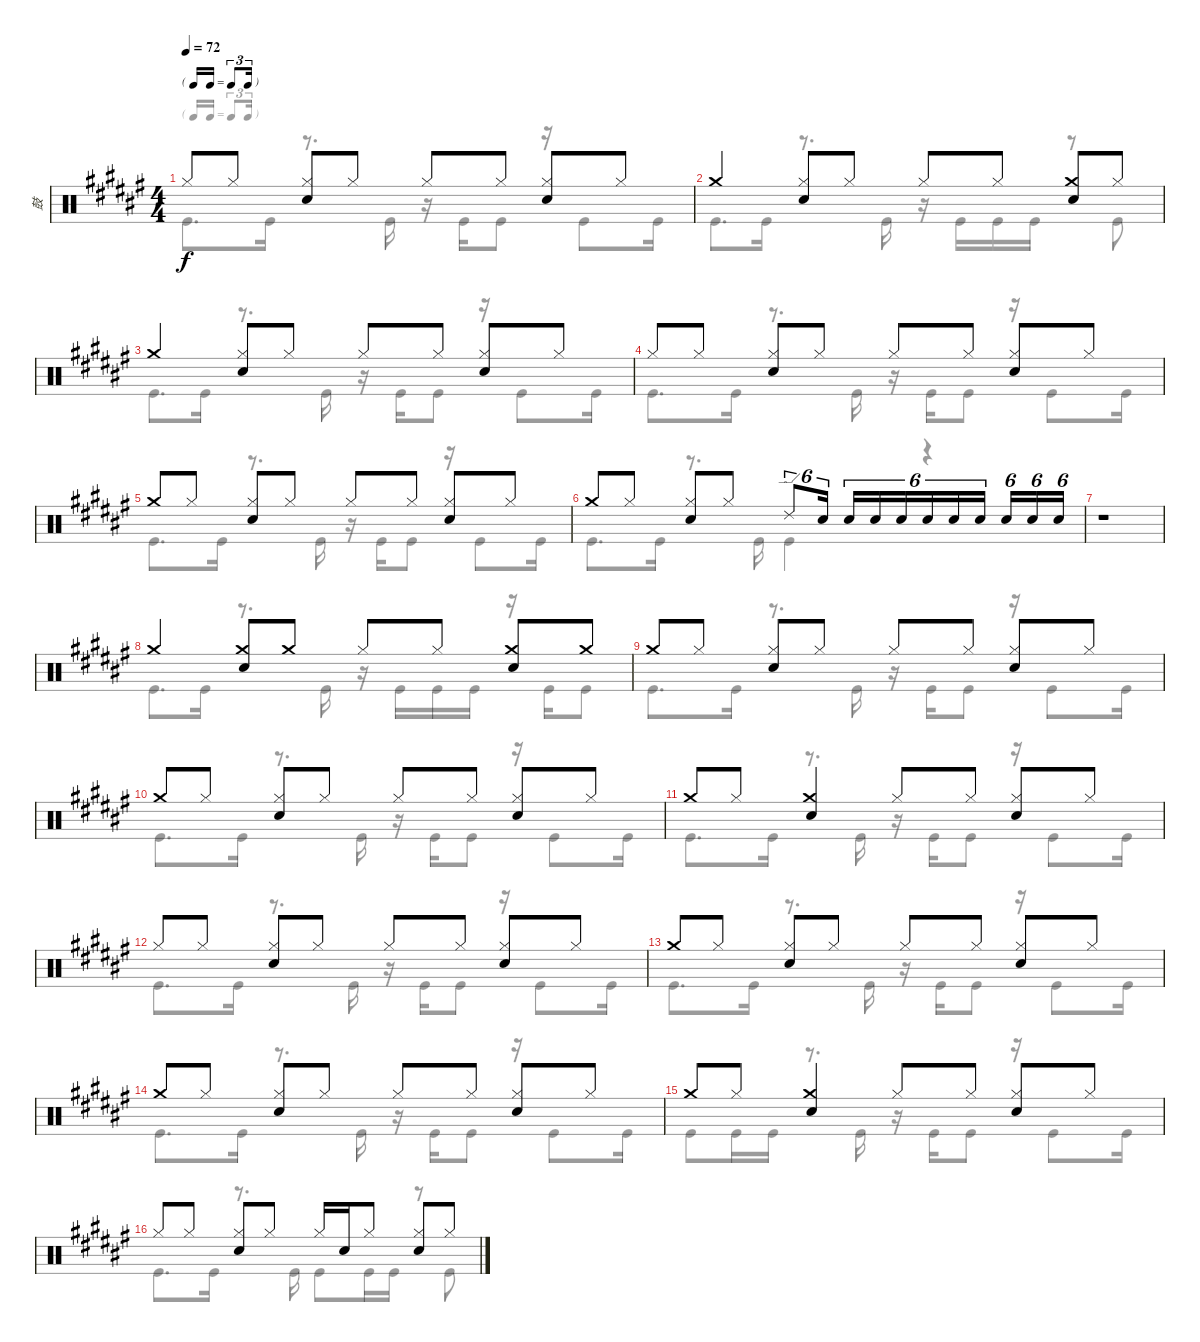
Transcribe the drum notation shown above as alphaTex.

\track ("鼓" "鼓") {instrument percussion}
\staff {score}
\articulation defaults
\voice
\ts (4 4)
\tf triplet16th
\tempo 72
\clef neutral
\ks f# "Hi-Hat (closed)".8{dy f} "Hi-Hat (closed)".8
("Hi-Hat (closed)" "Snare (hit) 2").8 "Hi-Hat (closed)".8 "Hi-Hat (closed)".8 "Hi-Hat (closed)".8 ("Hi-Hat (closed)" "Snare (hit) 2").8 "Hi-Hat (closed)".8 |
"Crash medium (hit)".4 ("Hi-Hat (closed)" "Snare (hit) 2").8 "Hi-Hat (closed)".8 "Hi-Hat (closed)".8 "Hi-Hat (closed)".8 ("Crash medium (hit)" "Snare (hit) 2").8 "Hi-Hat (closed)".8 |
"Crash medium (hit)".4 ("Hi-Hat (closed)" "Snare (hit) 2").8 "Hi-Hat (closed)".8 "Hi-Hat (closed)".8 "Hi-Hat (closed)".8 ("Hi-Hat (closed)" "Snare (hit) 2").8 "Hi-Hat (closed)".8 |
"Hi-Hat (closed)".8 "Hi-Hat (closed)".8 ("Hi-Hat (closed)" "Snare (hit) 2").8 "Hi-Hat (closed)".8 "Hi-Hat (closed)".8 "Hi-Hat (closed)".8 ("Hi-Hat (closed)" "Snare (hit) 2").8 "Hi-Hat (closed)".8 |
"Crash medium (hit)".8 "Hi-Hat (closed)".8 ("Hi-Hat (closed)" "Snare (hit) 2").8 "Hi-Hat (closed)".8 "Hi-Hat (closed)".8 "Hi-Hat (closed)".8 ("Hi-Hat (closed)" "Snare (hit) 2").8 "Hi-Hat (closed)".8 |
"Crash medium (hit)".8 "Hi-Hat (closed)".8 ("Hi-Hat (closed)" "Snare (hit) 2").8 "Hi-Hat (closed)".8 "Ride (edge) 2".8{tu (6 4)} "Snare (hit) 2".16{tu (6 4) beam splitsecondary} "Snare (hit) 2".16{tu (6 4)} "Snare (hit) 2".16{tu (6 4)} "Snare (hit) 2".16{tu (6 4)} "Snare (hit) 2".16{tu (6 4)} "Snare (hit) 2".16{tu (6 4)} "Snare (hit) 2".16{tu (6 4) beam splitsecondary} "Snare (hit) 2".16{tu (6 4)} "Snare (hit) 2".16{tu (6 4)} "Snare (hit) 2".16{tu (6 4)} |
r.1 |
"Crash medium (hit)".4 ("Crash medium (hit)" "Snare (hit) 2").8 "Crash medium (hit)".8 "Hi-Hat (closed)".8 "Hi-Hat (closed)".8 ("Crash medium (hit)" "Snare (hit) 2").8 "Crash medium (hit)".8 |
"Crash medium (hit)".8 "Hi-Hat (closed)".8 ("Hi-Hat (closed)" "Snare (hit) 2").8 "Hi-Hat (closed)".8 "Hi-Hat (closed)".8 "Hi-Hat (closed)".8 ("Hi-Hat (closed)" "Snare (hit) 2").8 "Hi-Hat (closed)".8 |
"Crash medium (hit)".8 "Hi-Hat (closed)".8 ("Hi-Hat (closed)" "Snare (hit) 2").8 "Hi-Hat (closed)".8 "Hi-Hat (closed)".8 "Hi-Hat (closed)".8 ("Hi-Hat (closed)" "Snare (hit) 2").8 "Hi-Hat (closed)".8 |
"Crash medium (hit)".8 "Hi-Hat (closed)".8 ("Crash medium (hit)" "Snare (hit) 2").4 "Hi-Hat (closed)".8 "Hi-Hat (closed)".8 ("Hi-Hat (closed)" "Snare (hit) 2").8 "Hi-Hat (closed)".8 |
"Hi-Hat (closed)".8 "Hi-Hat (closed)".8 ("Hi-Hat (closed)" "Snare (hit) 2").8 "Hi-Hat (closed)".8 "Hi-Hat (closed)".8 "Hi-Hat (closed)".8 ("Hi-Hat (closed)" "Snare (hit) 2").8 "Hi-Hat (closed)".8 |
"Crash medium (hit)".8 "Hi-Hat (closed)".8 ("Hi-Hat (closed)" "Snare (hit) 2").8 "Hi-Hat (closed)".8 "Hi-Hat (closed)".8 "Hi-Hat (closed)".8 ("Hi-Hat (closed)" "Snare (hit) 2").8 "Hi-Hat (closed)".8 |
"Crash medium (hit)".8 "Hi-Hat (closed)".8 ("Hi-Hat (closed)" "Snare (hit) 2").8 "Hi-Hat (closed)".8 "Hi-Hat (closed)".8 "Hi-Hat (closed)".8 ("Hi-Hat (closed)" "Snare (hit) 2").8 "Hi-Hat (closed)".8 |
"Crash medium (hit)".8 "Hi-Hat (closed)".8 ("Crash medium (hit)" "Snare (hit) 2").4 "Hi-Hat (closed)".8 "Hi-Hat (closed)".8 ("Hi-Hat (closed)" "Snare (hit) 2").8 "Hi-Hat (closed)".8 |
"Hi-Hat (closed)".8 "Hi-Hat (closed)".8 ("Hi-Hat (closed)" "Snare (hit) 2").8 "Hi-Hat (closed)".8 "Hi-Hat (closed)".16 "Snare (hit) 2".16 "Hi-Hat (closed)".8 ("Hi-Hat (closed)" "Snare (hit) 2").8 "Hi-Hat (closed)".8
\voice
\clef neutral
\ottava regular
\simile none
\ks f# "Kick (hit)".8{d dy f} "Kick (hit)".16
r.8{d} "Kick (hit)".16 r.16 "Kick (hit)".16 "Kick (hit)".8 r.16 "Kick (hit)".8 "Kick (hit)".16 |
"Kick (hit)".8{d} "Kick (hit)".16 r.8{d} "Kick (hit)".16 r.16 "Kick (hit)".16 "Kick (hit)".16 "Kick (hit)".16 r.8 "Kick (hit)".8 |
"Kick (hit)".8{d} "Kick (hit)".16 r.8{d} "Kick (hit)".16 r.16 "Kick (hit)".16 "Kick (hit)".8 r.16 "Kick (hit)".8 "Kick (hit)".16 |
"Kick (hit)".8{d} "Kick (hit)".16 r.8{d} "Kick (hit)".16 r.16 "Kick (hit)".16 "Kick (hit)".8 r.16 "Kick (hit)".8 "Kick (hit)".16 |
"Kick (hit)".8{d} "Kick (hit)".16 r.8{d} "Kick (hit)".16 r.16 "Kick (hit)".16 "Kick (hit)".8 r.16 "Kick (hit)".8 "Kick (hit)".16 |
"Kick (hit)".8{d} "Kick (hit)".16 r.8{d} "Kick (hit)".16 "Kick (hit)".4 r.4 |
|
"Kick (hit)".8{d} "Kick (hit)".16 r.8{d} "Kick (hit)".16 r.16 "Kick (hit)".16 "Kick (hit)".16 "Kick (hit)".16 r.16 "Kick (hit)".16 "Kick (hit)".8 |
"Kick (hit)".8{d} "Kick (hit)".16 r.8{d} "Kick (hit)".16 r.16 "Kick (hit)".16 "Kick (hit)".8 r.16 "Kick (hit)".8 "Kick (hit)".16 |
"Kick (hit)".8{d} "Kick (hit)".16 r.8{d} "Kick (hit)".16 r.16 "Kick (hit)".16 "Kick (hit)".8 r.16 "Kick (hit)".8 "Kick (hit)".16 |
"Kick (hit)".8{d} "Kick (hit)".16 r.8{d} "Kick (hit)".16 r.16 "Kick (hit)".16 "Kick (hit)".8 r.16 "Kick (hit)".8 "Kick (hit)".16 |
"Kick (hit)".8{d} "Kick (hit)".16 r.8{d} "Kick (hit)".16 r.16 "Kick (hit)".16 "Kick (hit)".8 r.16 "Kick (hit)".8 "Kick (hit)".16 |
"Kick (hit)".8{d} "Kick (hit)".16 r.8{d} "Kick (hit)".16 r.16 "Kick (hit)".16 "Kick (hit)".8 r.16 "Kick (hit)".8 "Kick (hit)".16 |
"Kick (hit)".8{d} "Kick (hit)".16 r.8{d} "Kick (hit)".16 r.16 "Kick (hit)".16 "Kick (hit)".8 r.16 "Kick (hit)".8 "Kick (hit)".16 |
"Kick (hit)".8 "Kick (hit)".16 "Kick (hit)".16 r.8{d} "Kick (hit)".16 r.16 "Kick (hit)".16 "Kick (hit)".8 r.16 "Kick (hit)".8 "Kick (hit)".16 |
"Kick (hit)".8{d} "Kick (hit)".16 r.8{d} "Kick (hit)".16 "Kick (hit)".8 "Kick (hit)".16 "Kick (hit)".16 r.8 "Kick (hit)".8
